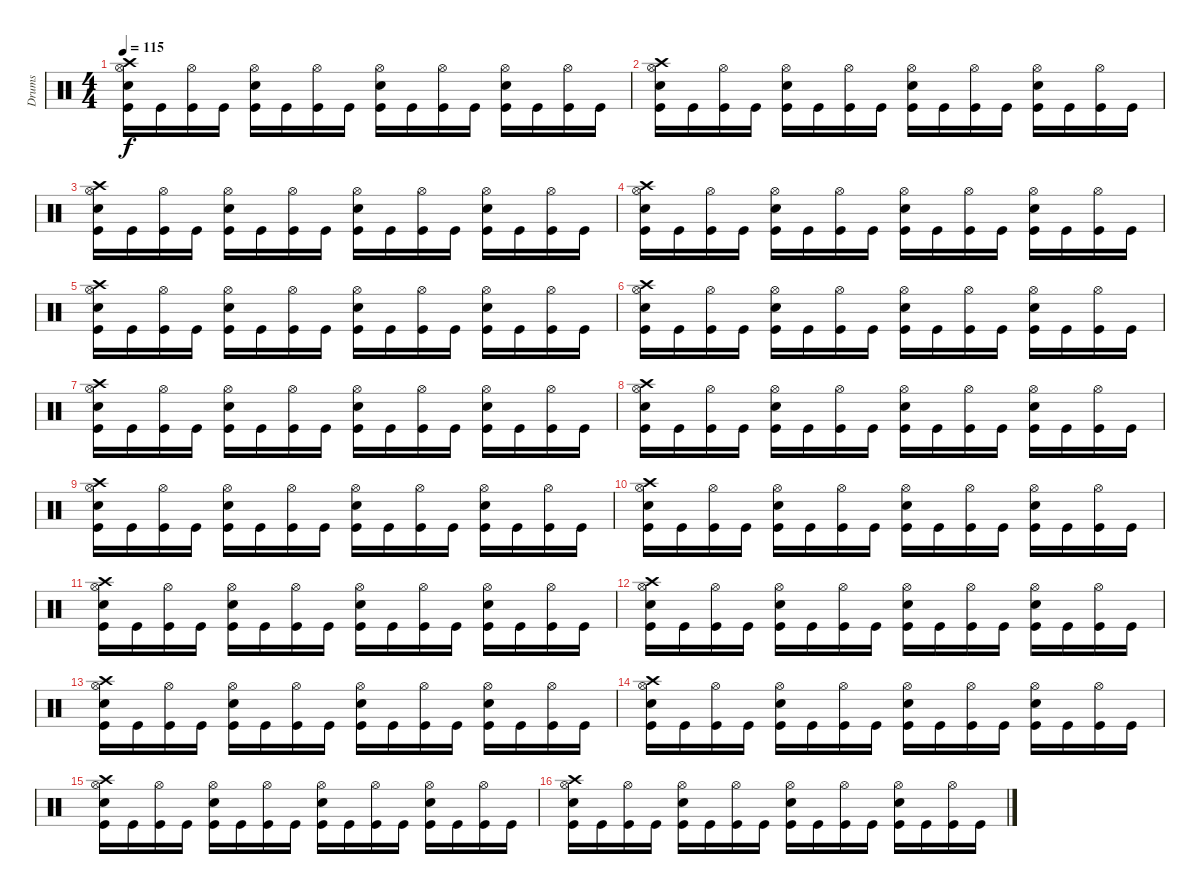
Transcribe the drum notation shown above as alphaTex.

\track ("Drums" "Drums") {instrument percussion}
\staff {score}
\articulation defaults
\ts (4 4)
\tempo 115
\clef neutral
\ks c
("Snare (hit) 2" "Crash high (hit)" "Kick (hit)" "Hi-Hat (open)").16{dy f} "Kick (hit)".16 ("Kick (hit)" "Hi-Hat (open)").16 "Kick (hit)".16 ("Snare (hit) 2" "Kick (hit)" "Hi-Hat (open)").16 "Kick (hit)".16 ("Kick (hit)" "Hi-Hat (open)").16 "Kick (hit)".16 ("Snare (hit) 2" "Hi-Hat (open)" "Kick (hit)").16 "Kick (hit)".16 ("Kick (hit)" "Hi-Hat (open)").16 "Kick (hit)".16 ("Snare (hit) 2" "Hi-Hat (open)" "Kick (hit)").16 "Kick (hit)".16 ("Kick (hit)" "Hi-Hat (open)").16 "Kick (hit)".16 |
("Snare (hit) 2" "Crash high (hit)" "Kick (hit)" "Hi-Hat (open)").16 "Kick (hit)".16 ("Kick (hit)" "Hi-Hat (open)").16 "Kick (hit)".16 ("Snare (hit) 2" "Kick (hit)" "Hi-Hat (open)").16 "Kick (hit)".16 ("Kick (hit)" "Hi-Hat (open)").16 "Kick (hit)".16 ("Snare (hit) 2" "Hi-Hat (open)" "Kick (hit)").16 "Kick (hit)".16 ("Kick (hit)" "Hi-Hat (open)").16 "Kick (hit)".16 ("Snare (hit) 2" "Hi-Hat (open)" "Kick (hit)").16 "Kick (hit)".16 ("Kick (hit)" "Hi-Hat (open)").16 "Kick (hit)".16 |
("Snare (hit) 2" "Crash high (hit)" "Kick (hit)" "Hi-Hat (open)").16 "Kick (hit)".16 ("Kick (hit)" "Hi-Hat (open)").16 "Kick (hit)".16 ("Snare (hit) 2" "Kick (hit)" "Hi-Hat (open)").16 "Kick (hit)".16 ("Kick (hit)" "Hi-Hat (open)").16 "Kick (hit)".16 ("Snare (hit) 2" "Hi-Hat (open)" "Kick (hit)").16 "Kick (hit)".16 ("Kick (hit)" "Hi-Hat (open)").16 "Kick (hit)".16 ("Snare (hit) 2" "Hi-Hat (open)" "Kick (hit)").16 "Kick (hit)".16 ("Kick (hit)" "Hi-Hat (open)").16 "Kick (hit)".16 |
("Snare (hit) 2" "Crash high (hit)" "Kick (hit)" "Hi-Hat (open)").16 "Kick (hit)".16 ("Kick (hit)" "Hi-Hat (open)").16 "Kick (hit)".16 ("Snare (hit) 2" "Kick (hit)" "Hi-Hat (open)").16 "Kick (hit)".16 ("Kick (hit)" "Hi-Hat (open)").16 "Kick (hit)".16 ("Snare (hit) 2" "Hi-Hat (open)" "Kick (hit)").16 "Kick (hit)".16 ("Kick (hit)" "Hi-Hat (open)").16 "Kick (hit)".16 ("Snare (hit) 2" "Hi-Hat (open)" "Kick (hit)").16 "Kick (hit)".16 ("Kick (hit)" "Hi-Hat (open)").16 "Kick (hit)".16 |
("Snare (hit) 2" "Crash high (hit)" "Kick (hit)" "Hi-Hat (open)").16 "Kick (hit)".16 ("Kick (hit)" "Hi-Hat (open)").16 "Kick (hit)".16 ("Snare (hit) 2" "Kick (hit)" "Hi-Hat (open)").16 "Kick (hit)".16 ("Kick (hit)" "Hi-Hat (open)").16 "Kick (hit)".16 ("Snare (hit) 2" "Hi-Hat (open)" "Kick (hit)").16 "Kick (hit)".16 ("Kick (hit)" "Hi-Hat (open)").16 "Kick (hit)".16 ("Snare (hit) 2" "Hi-Hat (open)" "Kick (hit)").16 "Kick (hit)".16 ("Kick (hit)" "Hi-Hat (open)").16 "Kick (hit)".16 |
("Snare (hit) 2" "Crash high (hit)" "Kick (hit)" "Hi-Hat (open)").16 "Kick (hit)".16 ("Kick (hit)" "Hi-Hat (open)").16 "Kick (hit)".16 ("Snare (hit) 2" "Kick (hit)" "Hi-Hat (open)").16 "Kick (hit)".16 ("Kick (hit)" "Hi-Hat (open)").16 "Kick (hit)".16 ("Snare (hit) 2" "Hi-Hat (open)" "Kick (hit)").16 "Kick (hit)".16 ("Kick (hit)" "Hi-Hat (open)").16 "Kick (hit)".16 ("Snare (hit) 2" "Hi-Hat (open)" "Kick (hit)").16 "Kick (hit)".16 ("Kick (hit)" "Hi-Hat (open)").16 "Kick (hit)".16 |
("Snare (hit) 2" "Crash high (hit)" "Kick (hit)" "Hi-Hat (open)").16 "Kick (hit)".16 ("Kick (hit)" "Hi-Hat (open)").16 "Kick (hit)".16 ("Snare (hit) 2" "Kick (hit)" "Hi-Hat (open)").16 "Kick (hit)".16 ("Kick (hit)" "Hi-Hat (open)").16 "Kick (hit)".16 ("Snare (hit) 2" "Hi-Hat (open)" "Kick (hit)").16 "Kick (hit)".16 ("Kick (hit)" "Hi-Hat (open)").16 "Kick (hit)".16 ("Snare (hit) 2" "Hi-Hat (open)" "Kick (hit)").16 "Kick (hit)".16 ("Kick (hit)" "Hi-Hat (open)").16 "Kick (hit)".16 |
("Snare (hit) 2" "Crash high (hit)" "Kick (hit)" "Hi-Hat (open)").16 "Kick (hit)".16 ("Kick (hit)" "Hi-Hat (open)").16 "Kick (hit)".16 ("Snare (hit) 2" "Kick (hit)" "Hi-Hat (open)").16 "Kick (hit)".16 ("Kick (hit)" "Hi-Hat (open)").16 "Kick (hit)".16 ("Snare (hit) 2" "Hi-Hat (open)" "Kick (hit)").16 "Kick (hit)".16 ("Kick (hit)" "Hi-Hat (open)").16 "Kick (hit)".16 ("Snare (hit) 2" "Hi-Hat (open)" "Kick (hit)").16 "Kick (hit)".16 ("Kick (hit)" "Hi-Hat (open)").16 "Kick (hit)".16 |
("Snare (hit) 2" "Crash high (hit)" "Kick (hit)" "Hi-Hat (open)").16 "Kick (hit)".16 ("Kick (hit)" "Hi-Hat (open)").16 "Kick (hit)".16 ("Snare (hit) 2" "Kick (hit)" "Hi-Hat (open)").16 "Kick (hit)".16 ("Kick (hit)" "Hi-Hat (open)").16 "Kick (hit)".16 ("Snare (hit) 2" "Hi-Hat (open)" "Kick (hit)").16 "Kick (hit)".16 ("Kick (hit)" "Hi-Hat (open)").16 "Kick (hit)".16 ("Snare (hit) 2" "Hi-Hat (open)" "Kick (hit)").16 "Kick (hit)".16 ("Kick (hit)" "Hi-Hat (open)").16 "Kick (hit)".16 |
("Snare (hit) 2" "Crash high (hit)" "Kick (hit)" "Hi-Hat (open)").16 "Kick (hit)".16 ("Kick (hit)" "Hi-Hat (open)").16 "Kick (hit)".16 ("Snare (hit) 2" "Kick (hit)" "Hi-Hat (open)").16 "Kick (hit)".16 ("Kick (hit)" "Hi-Hat (open)").16 "Kick (hit)".16 ("Snare (hit) 2" "Hi-Hat (open)" "Kick (hit)").16 "Kick (hit)".16 ("Kick (hit)" "Hi-Hat (open)").16 "Kick (hit)".16 ("Snare (hit) 2" "Hi-Hat (open)" "Kick (hit)").16 "Kick (hit)".16 ("Kick (hit)" "Hi-Hat (open)").16 "Kick (hit)".16 |
("Snare (hit) 2" "Crash high (hit)" "Kick (hit)" "Hi-Hat (open)").16 "Kick (hit)".16 ("Kick (hit)" "Hi-Hat (open)").16 "Kick (hit)".16 ("Snare (hit) 2" "Kick (hit)" "Hi-Hat (open)").16 "Kick (hit)".16 ("Kick (hit)" "Hi-Hat (open)").16 "Kick (hit)".16 ("Snare (hit) 2" "Hi-Hat (open)" "Kick (hit)").16 "Kick (hit)".16 ("Kick (hit)" "Hi-Hat (open)").16 "Kick (hit)".16 ("Snare (hit) 2" "Hi-Hat (open)" "Kick (hit)").16 "Kick (hit)".16 ("Kick (hit)" "Hi-Hat (open)").16 "Kick (hit)".16 |
("Snare (hit) 2" "Crash high (hit)" "Kick (hit)" "Hi-Hat (open)").16 "Kick (hit)".16 ("Kick (hit)" "Hi-Hat (open)").16 "Kick (hit)".16 ("Snare (hit) 2" "Kick (hit)" "Hi-Hat (open)").16 "Kick (hit)".16 ("Kick (hit)" "Hi-Hat (open)").16 "Kick (hit)".16 ("Snare (hit) 2" "Hi-Hat (open)" "Kick (hit)").16 "Kick (hit)".16 ("Kick (hit)" "Hi-Hat (open)").16 "Kick (hit)".16 ("Snare (hit) 2" "Hi-Hat (open)" "Kick (hit)").16 "Kick (hit)".16 ("Kick (hit)" "Hi-Hat (open)").16 "Kick (hit)".16 |
("Snare (hit) 2" "Crash high (hit)" "Kick (hit)" "Hi-Hat (open)").16 "Kick (hit)".16 ("Kick (hit)" "Hi-Hat (open)").16 "Kick (hit)".16 ("Snare (hit) 2" "Kick (hit)" "Hi-Hat (open)").16 "Kick (hit)".16 ("Kick (hit)" "Hi-Hat (open)").16 "Kick (hit)".16 ("Snare (hit) 2" "Hi-Hat (open)" "Kick (hit)").16 "Kick (hit)".16 ("Kick (hit)" "Hi-Hat (open)").16 "Kick (hit)".16 ("Snare (hit) 2" "Hi-Hat (open)" "Kick (hit)").16 "Kick (hit)".16 ("Kick (hit)" "Hi-Hat (open)").16 "Kick (hit)".16 |
("Snare (hit) 2" "Crash high (hit)" "Kick (hit)" "Hi-Hat (open)").16 "Kick (hit)".16 ("Kick (hit)" "Hi-Hat (open)").16 "Kick (hit)".16 ("Snare (hit) 2" "Kick (hit)" "Hi-Hat (open)").16 "Kick (hit)".16 ("Kick (hit)" "Hi-Hat (open)").16 "Kick (hit)".16 ("Snare (hit) 2" "Hi-Hat (open)" "Kick (hit)").16 "Kick (hit)".16 ("Kick (hit)" "Hi-Hat (open)").16 "Kick (hit)".16 ("Snare (hit) 2" "Hi-Hat (open)" "Kick (hit)").16 "Kick (hit)".16 ("Kick (hit)" "Hi-Hat (open)").16 "Kick (hit)".16 |
("Snare (hit) 2" "Crash high (hit)" "Kick (hit)" "Hi-Hat (open)").16 "Kick (hit)".16 ("Kick (hit)" "Hi-Hat (open)").16 "Kick (hit)".16 ("Snare (hit) 2" "Kick (hit)" "Hi-Hat (open)").16 "Kick (hit)".16 ("Kick (hit)" "Hi-Hat (open)").16 "Kick (hit)".16 ("Snare (hit) 2" "Hi-Hat (open)" "Kick (hit)").16 "Kick (hit)".16 ("Kick (hit)" "Hi-Hat (open)").16 "Kick (hit)".16 ("Snare (hit) 2" "Hi-Hat (open)" "Kick (hit)").16 "Kick (hit)".16 ("Kick (hit)" "Hi-Hat (open)").16 "Kick (hit)".16 |
("Snare (hit) 2" "Crash high (hit)" "Kick (hit)" "Hi-Hat (open)").16 "Kick (hit)".16 ("Kick (hit)" "Hi-Hat (open)").16 "Kick (hit)".16 ("Snare (hit) 2" "Kick (hit)" "Hi-Hat (open)").16 "Kick (hit)".16 ("Kick (hit)" "Hi-Hat (open)").16 "Kick (hit)".16 ("Snare (hit) 2" "Hi-Hat (open)" "Kick (hit)").16 "Kick (hit)".16 ("Kick (hit)" "Hi-Hat (open)").16 "Kick (hit)".16 ("Snare (hit) 2" "Hi-Hat (open)" "Kick (hit)").16 "Kick (hit)".16 ("Kick (hit)" "Hi-Hat (open)").16 "Kick (hit)".16
